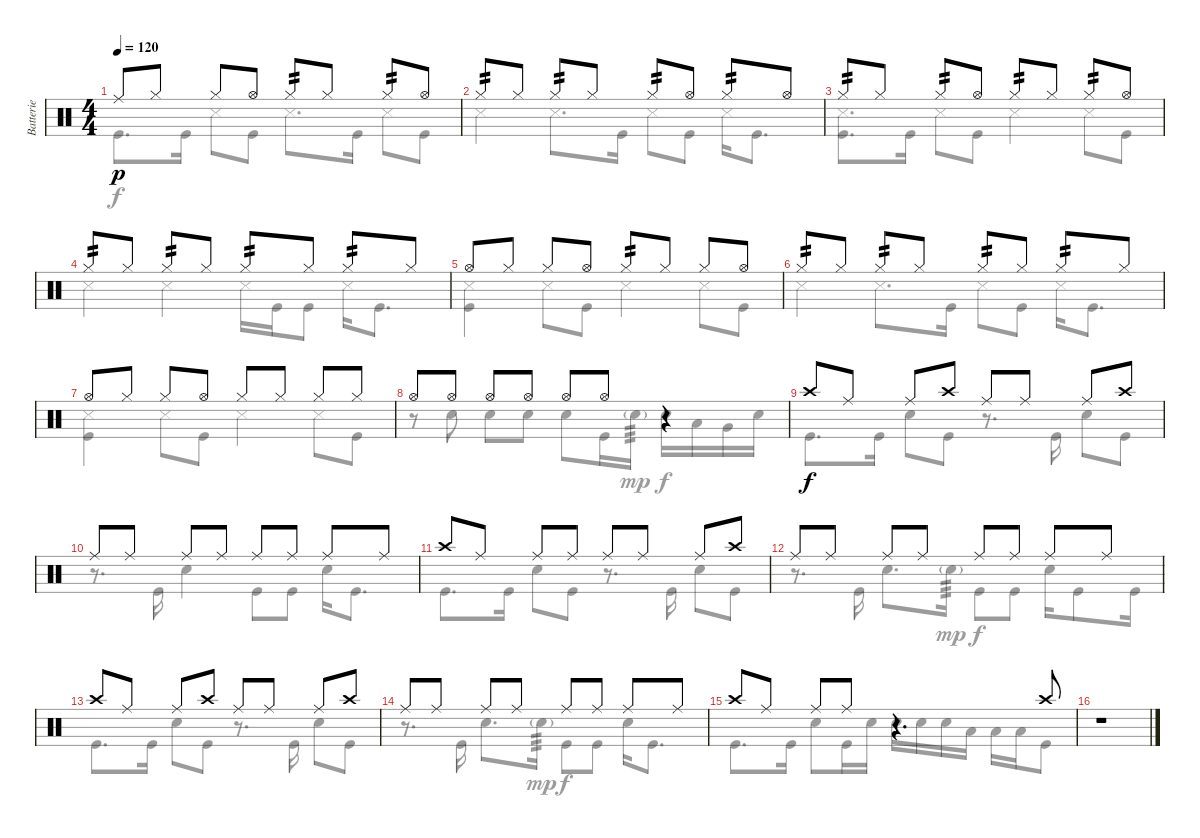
\track ("Batterie" "Batterie") {instrument percussion}
\staff {score}
\articulation defaults
\voice
\ts (4 4)
\tempo 120
\clef neutral
\ks c "Ride (middle)".8{dy p} "Hi-Hat (closed)".8 "Hi-Hat (closed)".8 "Hi-Hat (open)".8 "Hi-Hat (closed)".8{tp 2} "Hi-Hat (closed)".8 "Hi-Hat (closed)".8{tp 2} "Hi-Hat (open)".8
|
"Hi-Hat (closed)".8{tp 2} "Hi-Hat (closed)".8 "Hi-Hat (closed)".8{tp 2} "Hi-Hat (closed)".8 "Hi-Hat (closed)".8{tp 2} "Hi-Hat (open)".8 "Hi-Hat (closed)".8{tp 2} "Hi-Hat (open)".8 |
"Hi-Hat (closed)".8{tp 2} "Hi-Hat (closed)".8 "Hi-Hat (closed)".8{tp 2} "Hi-Hat (open)".8 "Hi-Hat (closed)".8{tp 2} "Hi-Hat (closed)".8 "Hi-Hat (closed)".8{tp 2} "Hi-Hat (open)".8 |
"Hi-Hat (closed)".8{tp 2} "Hi-Hat (closed)".8 "Hi-Hat (closed)".8{tp 2} "Hi-Hat (closed)".8 "Hi-Hat (closed)".8{tp 2} "Hi-Hat (closed)".8 "Hi-Hat (closed)".8{tp 2} "Hi-Hat (closed)".8 |
"Hi-Hat (open)".8 "Hi-Hat (closed)".8 "Hi-Hat (closed)".8 "Hi-Hat (open)".8 "Hi-Hat (closed)".8{tp 2} "Hi-Hat (closed)".8 "Hi-Hat (closed)".8 "Hi-Hat (open)".8 |
"Hi-Hat (closed)".8{tp 2} "Hi-Hat (closed)".8 "Hi-Hat (closed)".8{tp 2} "Hi-Hat (closed)".8 "Hi-Hat (closed)".8{tp 2} "Hi-Hat (closed)".8 "Hi-Hat (closed)".8{tp 2} "Hi-Hat (closed)".8 |
"Hi-Hat (open)".8 "Hi-Hat (closed)".8 "Hi-Hat (closed)".8 "Hi-Hat (open)".8 "Hi-Hat (closed)".8 "Hi-Hat (closed)".8 "Hi-Hat (closed)".8 "Hi-Hat (closed)".8 |
"Hi-Hat (open)".8 "Hi-Hat (open)".8 "Hi-Hat (open)".8 "Hi-Hat (open)".8 "Hi-Hat (open)".8 "Hi-Hat (open)".8 r.4 |
"Crash high (hit)".8{dy f} "Ride (middle)".8 "Ride (middle)".8 "Crash high (hit)".8 "Ride (middle)".8 "Ride (middle)".8 "Ride (middle)".8 "Crash high (hit)".8 |
"Ride (middle)".8 "Ride (middle)".8 "Ride (middle)".8 "Ride (middle)".8 "Ride (middle)".8 "Ride (middle)".8 "Ride (middle)".8 "Ride (middle)".8 |
"Crash high (hit)".8 "Ride (middle)".8 "Ride (middle)".8 "Ride (middle)".8 "Ride (middle)".8 "Ride (middle)".8 "Ride (middle)".8 "Crash high (hit)".8 |
"Ride (middle)".8 "Ride (middle)".8 "Ride (middle)".8 "Ride (middle)".8 "Ride (middle)".8 "Ride (middle)".8 "Ride (middle)".8 "Ride (middle)".8 |
"Crash high (hit)".8 "Ride (middle)".8 "Ride (middle)".8 "Crash high (hit)".8 "Ride (middle)".8 "Ride (middle)".8 "Ride (middle)".8 "Crash high (hit)".8 |
"Ride (middle)".8 "Ride (middle)".8 "Ride (middle)".8 "Ride (middle)".8 "Ride (middle)".8 "Ride (middle)".8 "Ride (middle)".8 "Ride (middle)".8 |
"Crash high (hit)".8 "Ride (middle)".8 "Ride (middle)".8 "Ride (middle)".8 r.4{d} "Crash high (hit)".8 |
r.1
\voice
\clef neutral
\ottava regular
\simile none
\ks c "Kick (hit)".8{d dy f} "Kick (hit)".16 "Snare (side stick) 3".8 "Kick (hit)".8 "Snare (side stick) 3".8{d} "Kick (hit)".16 "Snare (side stick) 3".8 "Kick (hit)".8
|
"Snare (side stick) 3".4 "Snare (side stick) 3".8{d} "Kick (hit)".16 "Snare (side stick) 3".8 "Kick (hit)".8 "Snare (side stick) 3".16 "Kick (hit)".8{d} |
("Snare (side stick) 3" "Kick (hit)").8{d} "Kick (hit)".16 "Snare (side stick) 3".8 "Kick (hit)".8 "Snare (side stick) 3".4 "Snare (side stick) 3".8 "Kick (hit)".8 |
"Snare (side stick) 3".4 "Snare (side stick) 3".4 "Snare (side stick) 3".16 "Kick (hit)".16 "Kick (hit)".8 "Snare (side stick) 3".16 "Kick (hit)".8{d} |
("Snare (side stick) 3" "Kick (hit)").4 "Snare (side stick) 3".8 "Kick (hit)".8 "Snare (side stick) 3".4 "Snare (side stick) 3".8 "Kick (hit)".8 |
"Snare (side stick) 3".4 "Snare (side stick) 3".8{d} "Kick (hit)".16 "Snare (side stick) 3".8 "Kick (hit)".8 "Snare (side stick) 3".16 "Kick (hit)".8{d} |
("Snare (side stick) 3" "Kick (hit)").4 "Snare (side stick) 3".8 "Kick (hit)".8 "Snare (side stick) 3".4 "Snare (side stick) 3".8 "Kick (hit)".8 |
r.8 "Snare (hit) 2".8 "Snare (hit) 2".8 "Snare (hit) 2".8 "Snare (hit) 2".8 "Kick (hit)".16 "Snare (hit) 2"{g}.16{tp 3 dy mp} "Snare (hit) 2".16{dy f} "Low Tom (hit)".16 "Very Low Tom (hit)".16 "Snare (hit) 2".16 |
"Kick (hit)".8{d} "Kick (hit)".16 "Snare (hit) 2".8 "Kick (hit)".8 r.8{d} "Kick (hit)".16 "Snare (hit) 2".8 "Kick (hit)".8 |
r.8{d} "Kick (hit)".16 "Snare (hit) 2".4 "Kick (hit)".8 "Kick (hit)".8 "Snare (hit) 2".16 "Kick (hit)".8{d} |
"Kick (hit)".8{d} "Kick (hit)".16 "Snare (hit) 2".8 "Kick (hit)".8 r.8{d} "Kick (hit)".16 "Snare (hit) 2".8 "Kick (hit)".8 |
r.8{d} "Kick (hit)".16 "Snare (hit) 2".8{d} "Snare (hit) 2"{g}.16{tp 3 dy mp} "Kick (hit)".8{dy f} "Kick (hit)".8 "Snare (hit) 2".16 "Kick (hit)".8 "Kick (hit)".16 |
"Kick (hit)".8{d} "Kick (hit)".16 "Snare (hit) 2".8 "Kick (hit)".8 r.8{d} "Kick (hit)".16 "Snare (hit) 2".8 "Kick (hit)".8 |
r.8{d} "Kick (hit)".16 "Snare (hit) 2".8{d} "Snare (hit) 2"{g}.16{tp 3 dy mp} "Kick (hit)".8{dy f} "Kick (hit)".8 "Snare (hit) 2".16 "Kick (hit)".8{d} |
"Kick (hit)".8{d} "Kick (hit)".16 "Snare (hit) 2".8 "Kick (hit)".16 "Snare (hit) 2".16 "Snare (hit) 2".16 "Snare (hit) 2".16 "Snare (hit) 2".16 "Low Tom (hit)".16 "Low Tom (hit)".16 "Low Tom (hit)".16 "Kick (hit)".8 |
